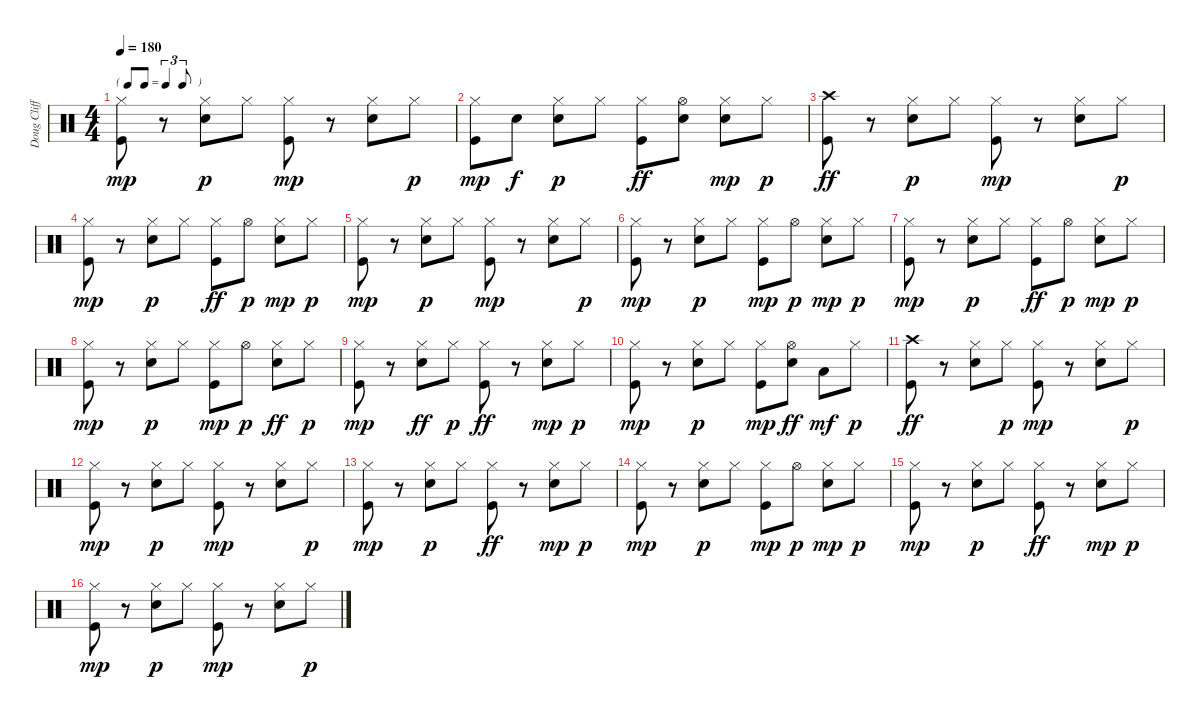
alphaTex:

\track ("Doug Clifford" "Doug Cliff") {instrument percussion}
\staff {score}
\articulation defaults
\ts (4 4)
\tf triplet8th
\tempo 180
\clef neutral
\ks c
("Kick (hit)" "Hi-Hat (closed)").8{dy mp} r.8 ("Snare (hit) 2" "Hi-Hat (closed)").8{dy p} "Hi-Hat (closed)".8 ("Kick (hit)" "Hi-Hat (closed)").8{dy mp} r.8 ("Snare (hit) 2" "Hi-Hat (closed)").8 "Hi-Hat (closed)".8{dy p} |
("Kick (hit)" "Hi-Hat (closed)").8{dy mp} "Snare (hit) 2".8{dy f} ("Snare (hit) 2" "Hi-Hat (closed)").8{dy p} "Hi-Hat (closed)".8 ("Hi-Hat (closed)" "Kick (hit)").8{dy ff} ("Hi-Hat (open)" "Snare (hit) 2").8 ("Snare (hit) 2" "Hi-Hat (closed)").8{dy mp} "Hi-Hat (closed)".8{dy p} |
("Crash high (hit)" "Kick (hit)").8{dy ff} r.8 ("Snare (hit) 2" "Hi-Hat (closed)").8{dy p} "Hi-Hat (closed)".8 ("Kick (hit)" "Hi-Hat (closed)").8{dy mp} r.8 ("Snare (hit) 2" "Hi-Hat (closed)").8 "Hi-Hat (closed)".8{dy p} |
("Kick (hit)" "Hi-Hat (closed)").8{dy mp} r.8 ("Snare (hit) 2" "Hi-Hat (closed)").8{dy p} "Hi-Hat (closed)".8 ("Hi-Hat (closed)" "Kick (hit)").8{dy ff} "Hi-Hat (open)".8{dy p} ("Snare (hit) 2" "Hi-Hat (closed)").8{dy mp} "Hi-Hat (closed)".8{dy p} |
("Kick (hit)" "Hi-Hat (closed)").8{dy mp} r.8 ("Snare (hit) 2" "Hi-Hat (closed)").8{dy p} "Hi-Hat (closed)".8 ("Kick (hit)" "Hi-Hat (closed)").8{dy mp} r.8 ("Snare (hit) 2" "Hi-Hat (closed)").8 "Hi-Hat (closed)".8{dy p} |
("Kick (hit)" "Hi-Hat (closed)").8{dy mp} r.8 ("Snare (hit) 2" "Hi-Hat (closed)").8{dy p} "Hi-Hat (closed)".8 ("Kick (hit)" "Hi-Hat (closed)").8{dy mp} "Hi-Hat (open)".8{dy p} ("Snare (hit) 2" "Hi-Hat (closed)").8{dy mp} "Hi-Hat (closed)".8{dy p} |
("Kick (hit)" "Hi-Hat (closed)").8{dy mp} r.8 ("Snare (hit) 2" "Hi-Hat (closed)").8{dy p} "Hi-Hat (closed)".8 ("Hi-Hat (closed)" "Kick (hit)").8{dy ff} "Hi-Hat (open)".8{dy p} ("Snare (hit) 2" "Hi-Hat (closed)").8{dy mp} "Hi-Hat (closed)".8{dy p} |
("Kick (hit)" "Hi-Hat (closed)").8{dy mp} r.8 ("Snare (hit) 2" "Hi-Hat (closed)").8{dy p} "Hi-Hat (closed)".8 ("Kick (hit)" "Hi-Hat (closed)").8{dy mp} "Hi-Hat (open)".8{dy p} ("Hi-Hat (closed)" "Snare (hit) 2").8{dy ff} "Hi-Hat (closed)".8{dy p} |
("Kick (hit)" "Hi-Hat (closed)").8{dy mp} r.8 ("Hi-Hat (closed)" "Snare (hit) 2").8{dy ff} "Hi-Hat (closed)".8{dy p} ("Hi-Hat (closed)" "Kick (hit)").8{dy ff} r.8 ("Snare (hit) 2" "Hi-Hat (closed)").8{dy mp} "Hi-Hat (closed)".8{dy p} |
("Kick (hit)" "Hi-Hat (closed)").8{dy mp} r.8 ("Snare (hit) 2" "Hi-Hat (closed)").8{dy p} "Hi-Hat (closed)".8 ("Kick (hit)" "Hi-Hat (closed)").8{dy mp} ("Hi-Hat (open)" "Snare (hit) 2").8{dy ff} "Low Tom (hit)".8{dy mf} "Hi-Hat (closed)".8{dy p} |
("Crash high (hit)" "Kick (hit)").8{dy ff} r.8 ("Hi-Hat (closed)" "Snare (hit) 2").8 "Hi-Hat (closed)".8{dy p} ("Kick (hit)" "Hi-Hat (closed)").8{dy mp} r.8 ("Snare (hit) 2" "Hi-Hat (closed)").8 "Hi-Hat (closed)".8{dy p} |
("Kick (hit)" "Hi-Hat (closed)").8{dy mp} r.8 ("Snare (hit) 2" "Hi-Hat (closed)").8{dy p} "Hi-Hat (closed)".8 ("Kick (hit)" "Hi-Hat (closed)").8{dy mp} r.8 ("Snare (hit) 2" "Hi-Hat (closed)").8 "Hi-Hat (closed)".8{dy p} |
("Kick (hit)" "Hi-Hat (closed)").8{dy mp} r.8 ("Snare (hit) 2" "Hi-Hat (closed)").8{dy p} "Hi-Hat (closed)".8 ("Hi-Hat (closed)" "Kick (hit)").8{dy ff} r.8 ("Snare (hit) 2" "Hi-Hat (closed)").8{dy mp} "Hi-Hat (closed)".8{dy p} |
("Kick (hit)" "Hi-Hat (closed)").8{dy mp} r.8 ("Snare (hit) 2" "Hi-Hat (closed)").8{dy p} "Hi-Hat (closed)".8 ("Kick (hit)" "Hi-Hat (closed)").8{dy mp} "Hi-Hat (open)".8{dy p} ("Snare (hit) 2" "Hi-Hat (closed)").8{dy mp} "Hi-Hat (closed)".8{dy p} |
("Kick (hit)" "Hi-Hat (closed)").8{dy mp} r.8 ("Snare (hit) 2" "Hi-Hat (closed)").8{dy p} "Hi-Hat (closed)".8 ("Hi-Hat (closed)" "Kick (hit)").8{dy ff} r.8 ("Snare (hit) 2" "Hi-Hat (closed)").8{dy mp} "Hi-Hat (closed)".8{dy p} |
("Kick (hit)" "Hi-Hat (closed)").8{dy mp} r.8 ("Snare (hit) 2" "Hi-Hat (closed)").8{dy p} "Hi-Hat (closed)".8 ("Kick (hit)" "Hi-Hat (closed)").8{dy mp} r.8 ("Snare (hit) 2" "Hi-Hat (closed)").8 "Hi-Hat (closed)".8{dy p}
